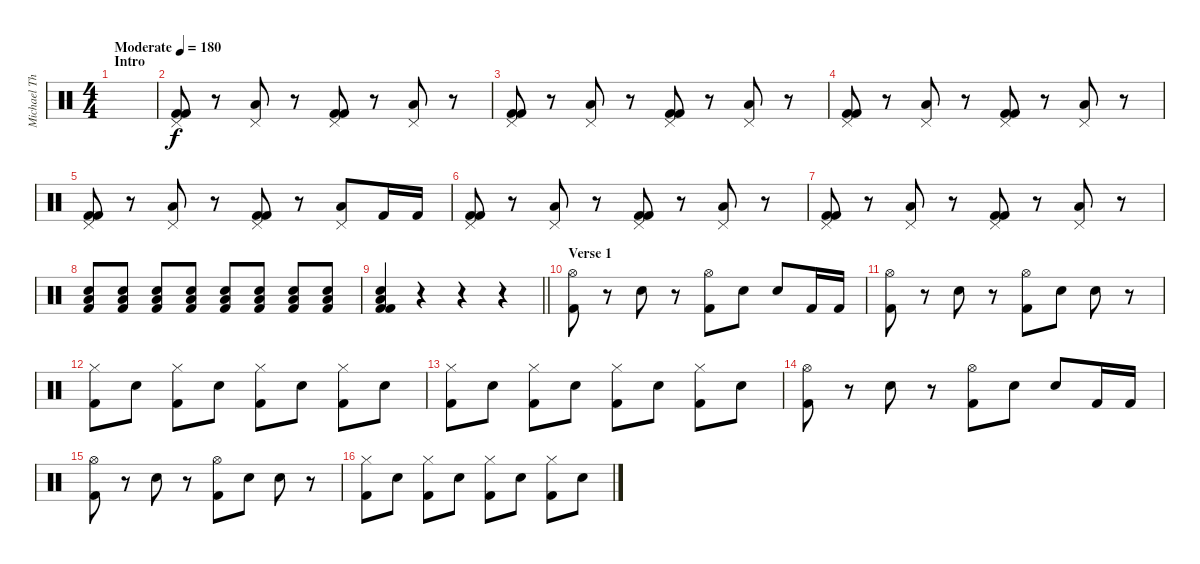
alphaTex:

\track ("Michael Thomas" "Michael Th") {instrument percussion}
\staff
\articulation defaults
\ts (4 4)
\section ("" "Intro")
\tempo (180 "Moderate")
\clef neutral
\ks c
|
("Pedal Hi-Hat (hit)" "Kick (hit) 2" "Kick (hit) 2").8 r.8 ("Pedal Hi-Hat (hit)" "Low Floor Tom (hit)").8 r.8 ("Pedal Hi-Hat (hit)" "Kick (hit) 2" "Kick (hit) 2").8 r.8 ("Pedal Hi-Hat (hit)" "Low Floor Tom (hit)").8 r.8 |
("Pedal Hi-Hat (hit)" "Kick (hit) 2" "Kick (hit) 2").8 r.8 ("Pedal Hi-Hat (hit)" "Low Floor Tom (hit)").8 r.8 ("Pedal Hi-Hat (hit)" "Kick (hit) 2" "Kick (hit) 2").8 r.8 ("Pedal Hi-Hat (hit)" "Low Floor Tom (hit)").8 r.8 |
("Pedal Hi-Hat (hit)" "Kick (hit) 2" "Kick (hit) 2").8 r.8 ("Pedal Hi-Hat (hit)" "Low Floor Tom (hit)").8 r.8 ("Pedal Hi-Hat (hit)" "Kick (hit) 2" "Kick (hit) 2").8 r.8 ("Pedal Hi-Hat (hit)" "Low Floor Tom (hit)").8 r.8 |
("Pedal Hi-Hat (hit)" "Kick (hit) 2" "Kick (hit) 2").8 r.8 ("Pedal Hi-Hat (hit)" "Low Floor Tom (hit)").8 r.8 ("Pedal Hi-Hat (hit)" "Kick (hit) 2" "Kick (hit) 2").8 r.8 ("Pedal Hi-Hat (hit)" "Low Floor Tom (hit)").8 "Kick (hit) 2".16 "Kick (hit) 2".16 |
("Pedal Hi-Hat (hit)" "Kick (hit) 2" "Kick (hit) 2").8 r.8 ("Pedal Hi-Hat (hit)" "Low Floor Tom (hit)").8 r.8 ("Pedal Hi-Hat (hit)" "Kick (hit) 2" "Kick (hit) 2").8 r.8 ("Pedal Hi-Hat (hit)" "Low Floor Tom (hit)").8 r.8 |
("Pedal Hi-Hat (hit)" "Kick (hit) 2" "Kick (hit) 2").8 r.8 ("Pedal Hi-Hat (hit)" "Low Floor Tom (hit)").8 r.8 ("Pedal Hi-Hat (hit)" "Kick (hit) 2" "Kick (hit) 2").8 r.8 ("Pedal Hi-Hat (hit)" "Low Floor Tom (hit)").8 r.8 |
("Low Floor Tom (hit)" "Electric Snare (hit)" "Kick (hit) 2").8 ("Low Floor Tom (hit)" "Electric Snare (hit)" "Kick (hit) 2").8 ("Low Floor Tom (hit)" "Electric Snare (hit)" "Kick (hit) 2").8 ("Low Floor Tom (hit)" "Electric Snare (hit)" "Kick (hit) 2").8 ("Low Floor Tom (hit)" "Electric Snare (hit)" "Kick (hit) 2").8 ("Low Floor Tom (hit)" "Electric Snare (hit)" "Kick (hit) 2").8 ("Low Floor Tom (hit)" "Electric Snare (hit)" "Kick (hit) 2").8 ("Low Floor Tom (hit)" "Electric Snare (hit)" "Kick (hit) 2").8 |
\barLineRight lightlight
("Low Floor Tom (hit)" "Electric Snare (hit)" "Kick (hit) 2" "Kick (hit) 2").4 r.4 r.4 r.4 |
\section ("" "Verse 1")
("Hi-Hat (open)" "Kick (hit) 2").8 r.8 "Electric Snare (hit)".8 r.8 ("Hi-Hat (open)" "Kick (hit) 2").8 "Electric Snare (hit)".8 "Electric Snare (hit)".8 "Kick (hit) 2".16 "Kick (hit) 2".16 |
("Hi-Hat (open)" "Kick (hit) 2").8 r.8 "Electric Snare (hit)".8 r.8 ("Hi-Hat (open)" "Kick (hit) 2").8 "Electric Snare (hit)".8 "Electric Snare (hit)".8 r.8 |
("Hi-Hat (closed)" "Kick (hit) 2").8 "Electric Snare (hit)".8 ("Hi-Hat (closed)" "Kick (hit) 2").8 "Electric Snare (hit)".8 ("Hi-Hat (closed)" "Kick (hit) 2").8 "Electric Snare (hit)".8 ("Hi-Hat (closed)" "Kick (hit) 2").8 "Electric Snare (hit)".8 |
("Hi-Hat (closed)" "Kick (hit) 2").8 "Electric Snare (hit)".8 ("Hi-Hat (closed)" "Kick (hit) 2").8 "Electric Snare (hit)".8 ("Hi-Hat (closed)" "Kick (hit) 2").8 "Electric Snare (hit)".8 ("Hi-Hat (closed)" "Kick (hit) 2").8 "Electric Snare (hit)".8 |
("Hi-Hat (open)" "Kick (hit) 2").8 r.8 "Electric Snare (hit)".8 r.8 ("Hi-Hat (open)" "Kick (hit) 2").8 "Electric Snare (hit)".8 "Electric Snare (hit)".8 "Kick (hit) 2".16 "Kick (hit) 2".16 |
("Hi-Hat (open)" "Kick (hit) 2").8 r.8 "Electric Snare (hit)".8 r.8 ("Hi-Hat (open)" "Kick (hit) 2").8 "Electric Snare (hit)".8 "Electric Snare (hit)".8 r.8 |
("Hi-Hat (closed)" "Kick (hit) 2").8 "Electric Snare (hit)".8 ("Hi-Hat (closed)" "Kick (hit) 2").8 "Electric Snare (hit)".8 ("Hi-Hat (closed)" "Kick (hit) 2").8 "Electric Snare (hit)".8 ("Hi-Hat (closed)" "Kick (hit) 2").8 "Electric Snare (hit)".8
